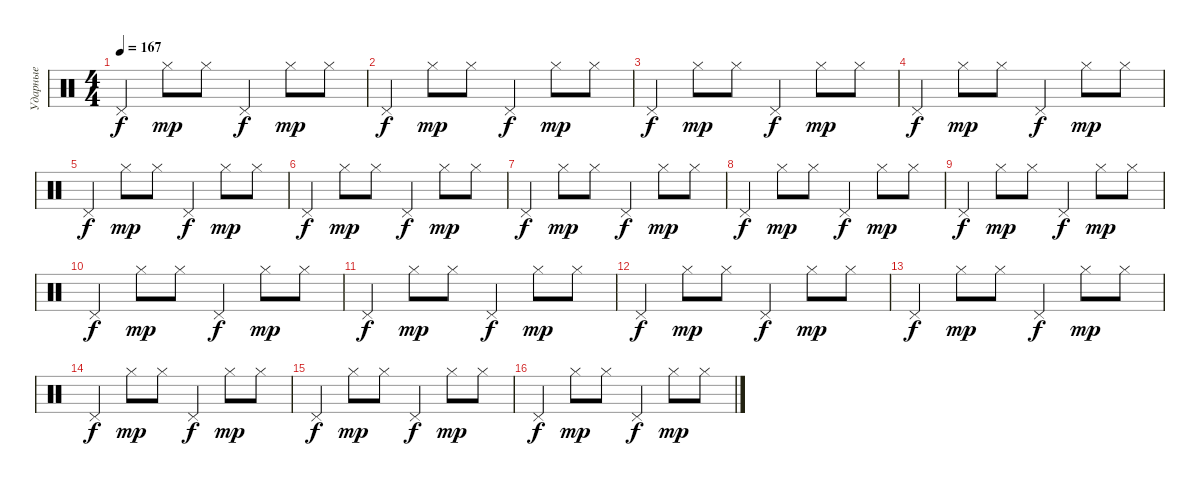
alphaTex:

\track ("Ударные" "Ударные") {instrument percussion}
\staff {score}
\articulation defaults
\ts (4 4)
\tempo 167
\clef neutral
\ks c "Pedal Hi-Hat (hit)".4{dy f} "Hi-Hat (closed)".8{dy mp} "Hi-Hat (closed)".8 "Pedal Hi-Hat (hit)".4{dy f} "Hi-Hat (closed)".8{dy mp} "Hi-Hat (closed)".8
|
"Pedal Hi-Hat (hit)".4{dy f} "Hi-Hat (closed)".8{dy mp} "Hi-Hat (closed)".8 "Pedal Hi-Hat (hit)".4{dy f} "Hi-Hat (closed)".8{dy mp} "Hi-Hat (closed)".8 |
"Pedal Hi-Hat (hit)".4{dy f} "Hi-Hat (closed)".8{dy mp} "Hi-Hat (closed)".8 "Pedal Hi-Hat (hit)".4{dy f} "Hi-Hat (closed)".8{dy mp} "Hi-Hat (closed)".8 |
"Pedal Hi-Hat (hit)".4{dy f} "Hi-Hat (closed)".8{dy mp} "Hi-Hat (closed)".8 "Pedal Hi-Hat (hit)".4{dy f} "Hi-Hat (closed)".8{dy mp} "Hi-Hat (closed)".8 |
"Pedal Hi-Hat (hit)".4{dy f} "Hi-Hat (closed)".8{dy mp} "Hi-Hat (closed)".8 "Pedal Hi-Hat (hit)".4{dy f} "Hi-Hat (closed)".8{dy mp} "Hi-Hat (closed)".8 |
"Pedal Hi-Hat (hit)".4{dy f} "Hi-Hat (closed)".8{dy mp} "Hi-Hat (closed)".8 "Pedal Hi-Hat (hit)".4{dy f} "Hi-Hat (closed)".8{dy mp} "Hi-Hat (closed)".8 |
"Pedal Hi-Hat (hit)".4{dy f} "Hi-Hat (closed)".8{dy mp} "Hi-Hat (closed)".8 "Pedal Hi-Hat (hit)".4{dy f} "Hi-Hat (closed)".8{dy mp} "Hi-Hat (closed)".8 |
"Pedal Hi-Hat (hit)".4{dy f} "Hi-Hat (closed)".8{dy mp} "Hi-Hat (closed)".8 "Pedal Hi-Hat (hit)".4{dy f} "Hi-Hat (closed)".8{dy mp} "Hi-Hat (closed)".8 |
"Pedal Hi-Hat (hit)".4{dy f} "Hi-Hat (closed)".8{dy mp} "Hi-Hat (closed)".8 "Pedal Hi-Hat (hit)".4{dy f} "Hi-Hat (closed)".8{dy mp} "Hi-Hat (closed)".8 |
"Pedal Hi-Hat (hit)".4{dy f} "Hi-Hat (closed)".8{dy mp} "Hi-Hat (closed)".8 "Pedal Hi-Hat (hit)".4{dy f} "Hi-Hat (closed)".8{dy mp} "Hi-Hat (closed)".8 |
"Pedal Hi-Hat (hit)".4{dy f} "Hi-Hat (closed)".8{dy mp} "Hi-Hat (closed)".8 "Pedal Hi-Hat (hit)".4{dy f} "Hi-Hat (closed)".8{dy mp} "Hi-Hat (closed)".8 |
"Pedal Hi-Hat (hit)".4{dy f} "Hi-Hat (closed)".8{dy mp} "Hi-Hat (closed)".8 "Pedal Hi-Hat (hit)".4{dy f} "Hi-Hat (closed)".8{dy mp} "Hi-Hat (closed)".8 |
"Pedal Hi-Hat (hit)".4{dy f} "Hi-Hat (closed)".8{dy mp} "Hi-Hat (closed)".8 "Pedal Hi-Hat (hit)".4{dy f} "Hi-Hat (closed)".8{dy mp} "Hi-Hat (closed)".8 |
"Pedal Hi-Hat (hit)".4{dy f} "Hi-Hat (closed)".8{dy mp} "Hi-Hat (closed)".8 "Pedal Hi-Hat (hit)".4{dy f} "Hi-Hat (closed)".8{dy mp} "Hi-Hat (closed)".8 |
"Pedal Hi-Hat (hit)".4{dy f} "Hi-Hat (closed)".8{dy mp} "Hi-Hat (closed)".8 "Pedal Hi-Hat (hit)".4{dy f} "Hi-Hat (closed)".8{dy mp} "Hi-Hat (closed)".8 |
"Pedal Hi-Hat (hit)".4{dy f} "Hi-Hat (closed)".8{dy mp} "Hi-Hat (closed)".8 "Pedal Hi-Hat (hit)".4{dy f} "Hi-Hat (closed)".8{dy mp} "Hi-Hat (closed)".8
